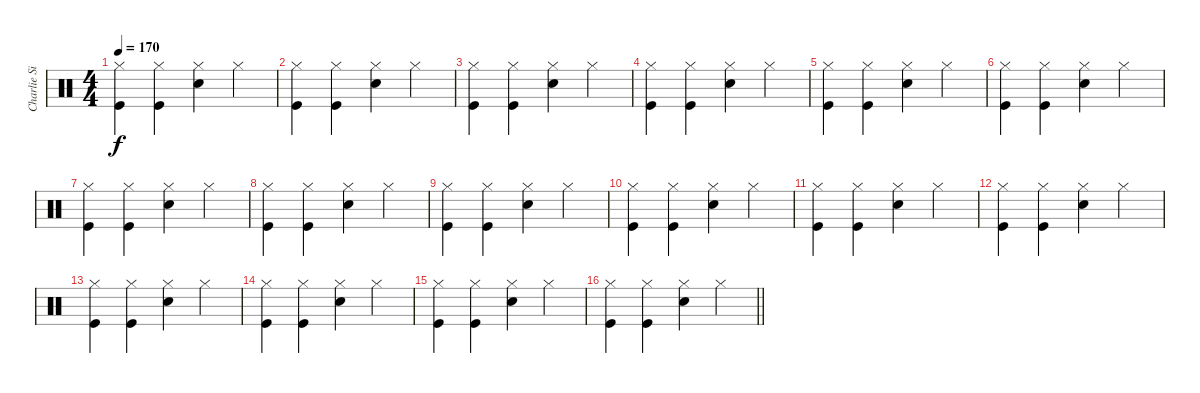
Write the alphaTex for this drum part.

\track ("Charlie Simpson (Drums)" "Charlie Si") {instrument percussion}
\staff {score}
\articulation defaults
\ts (4 4)
\tempo 170
\clef neutral
\ks c
("Hi-Hat (closed)" "Kick (hit)").4{dy f} ("Hi-Hat (closed)" "Kick (hit)").4 ("Hi-Hat (closed)" "Snare (hit) 2").4 "Hi-Hat (closed)".4 |
("Hi-Hat (closed)" "Kick (hit)").4 ("Hi-Hat (closed)" "Kick (hit)").4 ("Hi-Hat (closed)" "Snare (hit) 2").4 "Hi-Hat (closed)".4 |
("Hi-Hat (closed)" "Kick (hit)").4 ("Hi-Hat (closed)" "Kick (hit)").4 ("Hi-Hat (closed)" "Snare (hit) 2").4 "Hi-Hat (closed)".4 |
("Hi-Hat (closed)" "Kick (hit)").4 ("Hi-Hat (closed)" "Kick (hit)").4 ("Hi-Hat (closed)" "Snare (hit) 2").4 "Hi-Hat (closed)".4 |
("Hi-Hat (closed)" "Kick (hit)").4 ("Hi-Hat (closed)" "Kick (hit)").4 ("Hi-Hat (closed)" "Snare (hit) 2").4 "Hi-Hat (closed)".4 |
("Hi-Hat (closed)" "Kick (hit)").4 ("Hi-Hat (closed)" "Kick (hit)").4 ("Hi-Hat (closed)" "Snare (hit) 2").4 "Hi-Hat (closed)".4 |
("Hi-Hat (closed)" "Kick (hit)").4 ("Hi-Hat (closed)" "Kick (hit)").4 ("Hi-Hat (closed)" "Snare (hit) 2").4 "Hi-Hat (closed)".4 |
("Hi-Hat (closed)" "Kick (hit)").4 ("Hi-Hat (closed)" "Kick (hit)").4 ("Hi-Hat (closed)" "Snare (hit) 2").4 "Hi-Hat (closed)".4 |
("Hi-Hat (closed)" "Kick (hit)").4 ("Hi-Hat (closed)" "Kick (hit)").4 ("Hi-Hat (closed)" "Snare (hit) 2").4 "Hi-Hat (closed)".4 |
("Hi-Hat (closed)" "Kick (hit)").4 ("Hi-Hat (closed)" "Kick (hit)").4 ("Hi-Hat (closed)" "Snare (hit) 2").4 "Hi-Hat (closed)".4 |
("Hi-Hat (closed)" "Kick (hit)").4 ("Hi-Hat (closed)" "Kick (hit)").4 ("Hi-Hat (closed)" "Snare (hit) 2").4 "Hi-Hat (closed)".4 |
("Hi-Hat (closed)" "Kick (hit)").4 ("Hi-Hat (closed)" "Kick (hit)").4 ("Hi-Hat (closed)" "Snare (hit) 2").4 "Hi-Hat (closed)".4 |
("Hi-Hat (closed)" "Kick (hit)").4 ("Hi-Hat (closed)" "Kick (hit)").4 ("Hi-Hat (closed)" "Snare (hit) 2").4 "Hi-Hat (closed)".4 |
("Hi-Hat (closed)" "Kick (hit)").4 ("Hi-Hat (closed)" "Kick (hit)").4 ("Hi-Hat (closed)" "Snare (hit) 2").4 "Hi-Hat (closed)".4 |
("Hi-Hat (closed)" "Kick (hit)").4 ("Hi-Hat (closed)" "Kick (hit)").4 ("Hi-Hat (closed)" "Snare (hit) 2").4 "Hi-Hat (closed)".4 |
\barLineRight lightlight
("Hi-Hat (closed)" "Kick (hit)").4 ("Hi-Hat (closed)" "Kick (hit)").4 ("Hi-Hat (closed)" "Snare (hit) 2").4 "Hi-Hat (closed)".4
